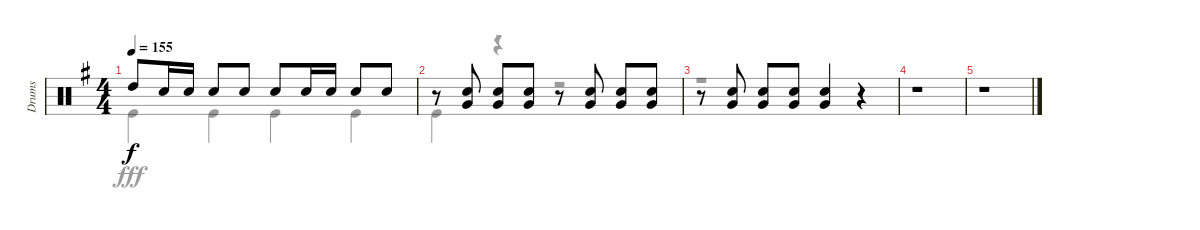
\track ("Drums" "Drums") {instrument percussion}
\staff {score}
\articulation defaults
\voice
\ts (4 4)
\tempo 155
\clef neutral
\ks g "High Tom (hit)".8{dy f} "Snare (hit) 2".16 "Snare (hit) 2".16 "Snare (hit) 2".8 "Snare (hit) 2".8 "Snare (hit) 2".8 "Snare (hit) 2".16 "Snare (hit) 2".16 "Snare (hit) 2".8 "Snare (hit) 2".8
|
r.8 ("Snare (hit) 2" "Very Low Tom (hit)").8 ("Snare (hit) 2" "Very Low Tom (hit)").8 ("Snare (hit) 2" "Very Low Tom (hit)").8 r.8 ("Snare (hit) 2" "Very Low Tom (hit)").8 ("Snare (hit) 2" "Very Low Tom (hit)").8 ("Snare (hit) 2" "Very Low Tom (hit)").8 |
r.8 ("Snare (hit) 2" "Very Low Tom (hit)").8 ("Snare (hit) 2" "Very Low Tom (hit)").8 ("Snare (hit) 2" "Very Low Tom (hit)").8 ("Snare (hit) 2" "Very Low Tom (hit)").4 r.4 |
r.1 |
r.1
\voice
\clef neutral
\ottava regular
\simile none
\ks g "Kick (hit)".4{dy fff} "Kick (hit)".4 "Kick (hit)".4 "Kick (hit)".4
|
"Kick (hit)".4 r.4 r.2 |
r.1 |
r.1 |
r.1
